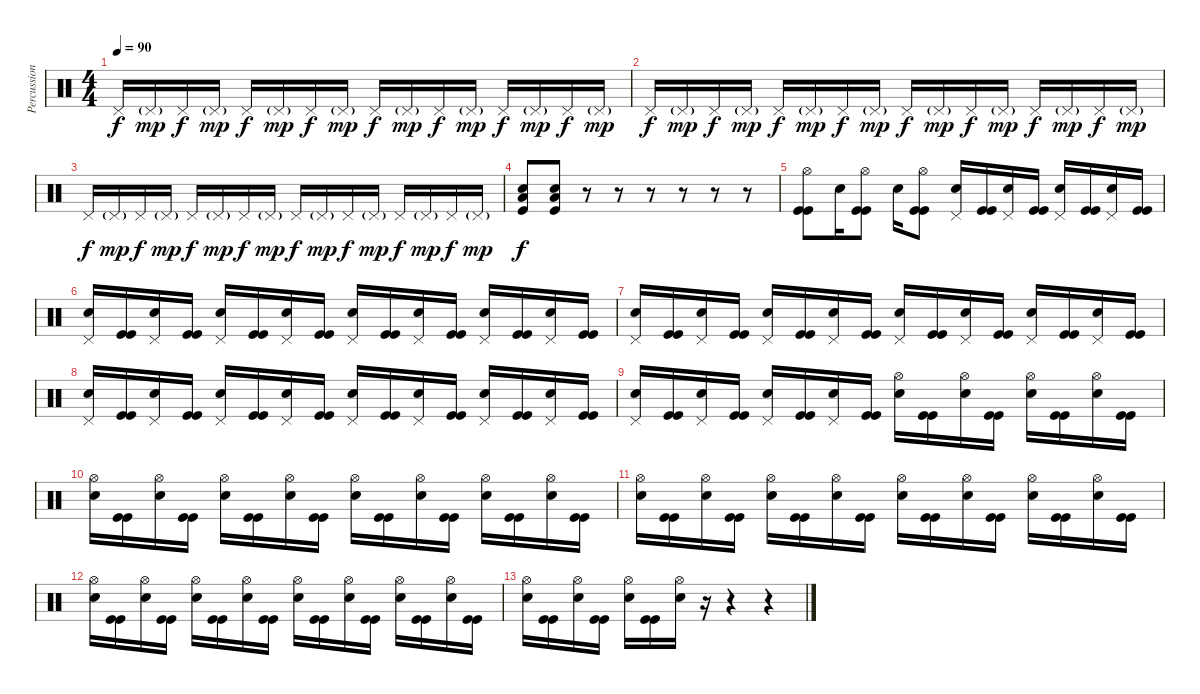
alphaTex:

\track ("Percussion" "Percussion") {instrument percussion}
\staff {score}
\articulation defaults
\ts (4 4)
\tempo 90
\clef neutral
\ks c "Pedal Hi-Hat (hit)".16{dy f} "Pedal Hi-Hat (hit)"{g}.16{dy mp} "Pedal Hi-Hat (hit)".16{dy f} "Pedal Hi-Hat (hit)"{g}.16{dy mp} "Pedal Hi-Hat (hit)".16{dy f} "Pedal Hi-Hat (hit)"{g}.16{dy mp} "Pedal Hi-Hat (hit)".16{dy f} "Pedal Hi-Hat (hit)"{g}.16{dy mp} "Pedal Hi-Hat (hit)".16{dy f} "Pedal Hi-Hat (hit)"{g}.16{dy mp} "Pedal Hi-Hat (hit)".16{dy f} "Pedal Hi-Hat (hit)"{g}.16{dy mp} "Pedal Hi-Hat (hit)".16{dy f} "Pedal Hi-Hat (hit)"{g}.16{dy mp} "Pedal Hi-Hat (hit)".16{dy f} "Pedal Hi-Hat (hit)"{g}.16{dy mp}
|
"Pedal Hi-Hat (hit)".16{dy f} "Pedal Hi-Hat (hit)"{g}.16{dy mp} "Pedal Hi-Hat (hit)".16{dy f} "Pedal Hi-Hat (hit)"{g}.16{dy mp} "Pedal Hi-Hat (hit)".16{dy f} "Pedal Hi-Hat (hit)"{g}.16{dy mp} "Pedal Hi-Hat (hit)".16{dy f} "Pedal Hi-Hat (hit)"{g}.16{dy mp} "Pedal Hi-Hat (hit)".16{dy f} "Pedal Hi-Hat (hit)"{g}.16{dy mp} "Pedal Hi-Hat (hit)".16{dy f} "Pedal Hi-Hat (hit)"{g}.16{dy mp} "Pedal Hi-Hat (hit)".16{dy f} "Pedal Hi-Hat (hit)"{g}.16{dy mp} "Pedal Hi-Hat (hit)".16{dy f} "Pedal Hi-Hat (hit)"{g}.16{dy mp} |
"Pedal Hi-Hat (hit)".16{dy f} "Pedal Hi-Hat (hit)"{g}.16{dy mp} "Pedal Hi-Hat (hit)".16{dy f} "Pedal Hi-Hat (hit)"{g}.16{dy mp} "Pedal Hi-Hat (hit)".16{dy f} "Pedal Hi-Hat (hit)"{g}.16{dy mp} "Pedal Hi-Hat (hit)".16{dy f} "Pedal Hi-Hat (hit)"{g}.16{dy mp} "Pedal Hi-Hat (hit)".16{dy f} "Pedal Hi-Hat (hit)"{g}.16{dy mp} "Pedal Hi-Hat (hit)".16{dy f} "Pedal Hi-Hat (hit)"{g}.16{dy mp} "Pedal Hi-Hat (hit)".16{dy f} "Pedal Hi-Hat (hit)"{g}.16{dy mp} "Pedal Hi-Hat (hit)".16{dy f} "Pedal Hi-Hat (hit)"{g}.16{dy mp} |
("Electric Snare (hit)" "Low Tom (hit)" "Kick (hit)").8{dy f} ("Electric Snare (hit)" "Low Tom (hit)" "Kick (hit)").8 r.8 r.8 r.8 r.8 r.8 r.8 |
("Hi-Hat (open)" "Kick (hit)" "Kick (hit)").8 "Electric Snare (hit)".16 ("Hi-Hat (open)" "Kick (hit)" "Kick (hit)").8 "Electric Snare (hit)".16 ("Hi-Hat (open)" "Kick (hit)" "Kick (hit)").8 ("Pedal Hi-Hat (hit)" "Electric Snare (hit)").16 ("Kick (hit)" "Kick (hit)").16 ("Pedal Hi-Hat (hit)" "Electric Snare (hit)").16 ("Kick (hit)" "Kick (hit)").16 ("Pedal Hi-Hat (hit)" "Electric Snare (hit)").16 ("Kick (hit)" "Kick (hit)").16 ("Pedal Hi-Hat (hit)" "Electric Snare (hit)").16 ("Kick (hit)" "Kick (hit)").16 |
("Pedal Hi-Hat (hit)" "Electric Snare (hit)").16 ("Kick (hit)" "Kick (hit)").16 ("Pedal Hi-Hat (hit)" "Electric Snare (hit)").16 ("Kick (hit)" "Kick (hit)").16 ("Pedal Hi-Hat (hit)" "Electric Snare (hit)").16 ("Kick (hit)" "Kick (hit)").16 ("Pedal Hi-Hat (hit)" "Electric Snare (hit)").16 ("Kick (hit)" "Kick (hit)").16 ("Pedal Hi-Hat (hit)" "Electric Snare (hit)").16 ("Kick (hit)" "Kick (hit)").16 ("Pedal Hi-Hat (hit)" "Electric Snare (hit)").16 ("Kick (hit)" "Kick (hit)").16 ("Pedal Hi-Hat (hit)" "Electric Snare (hit)").16 ("Kick (hit)" "Kick (hit)").16 ("Pedal Hi-Hat (hit)" "Electric Snare (hit)").16 ("Kick (hit)" "Kick (hit)").16 |
("Pedal Hi-Hat (hit)" "Electric Snare (hit)").16 ("Kick (hit)" "Kick (hit)").16 ("Pedal Hi-Hat (hit)" "Electric Snare (hit)").16 ("Kick (hit)" "Kick (hit)").16 ("Pedal Hi-Hat (hit)" "Electric Snare (hit)").16 ("Kick (hit)" "Kick (hit)").16 ("Pedal Hi-Hat (hit)" "Electric Snare (hit)").16 ("Kick (hit)" "Kick (hit)").16 ("Pedal Hi-Hat (hit)" "Electric Snare (hit)").16 ("Kick (hit)" "Kick (hit)").16 ("Pedal Hi-Hat (hit)" "Electric Snare (hit)").16 ("Kick (hit)" "Kick (hit)").16 ("Pedal Hi-Hat (hit)" "Electric Snare (hit)").16 ("Kick (hit)" "Kick (hit)").16 ("Pedal Hi-Hat (hit)" "Electric Snare (hit)").16 ("Kick (hit)" "Kick (hit)").16 |
("Pedal Hi-Hat (hit)" "Electric Snare (hit)").16 ("Kick (hit)" "Kick (hit)").16 ("Pedal Hi-Hat (hit)" "Electric Snare (hit)").16 ("Kick (hit)" "Kick (hit)").16 ("Pedal Hi-Hat (hit)" "Electric Snare (hit)").16 ("Kick (hit)" "Kick (hit)").16 ("Pedal Hi-Hat (hit)" "Electric Snare (hit)").16 ("Kick (hit)" "Kick (hit)").16 ("Pedal Hi-Hat (hit)" "Electric Snare (hit)").16 ("Kick (hit)" "Kick (hit)").16 ("Pedal Hi-Hat (hit)" "Electric Snare (hit)").16 ("Kick (hit)" "Kick (hit)").16 ("Pedal Hi-Hat (hit)" "Electric Snare (hit)").16 ("Kick (hit)" "Kick (hit)").16 ("Pedal Hi-Hat (hit)" "Electric Snare (hit)").16 ("Kick (hit)" "Kick (hit)").16 |
("Pedal Hi-Hat (hit)" "Electric Snare (hit)").16 ("Kick (hit)" "Kick (hit)").16 ("Pedal Hi-Hat (hit)" "Electric Snare (hit)").16 ("Kick (hit)" "Kick (hit)").16 ("Pedal Hi-Hat (hit)" "Electric Snare (hit)").16 ("Kick (hit)" "Kick (hit)").16 ("Pedal Hi-Hat (hit)" "Electric Snare (hit)").16 ("Kick (hit)" "Kick (hit)").16 ("Hi-Hat (open)" "Electric Snare (hit)").16 ("Kick (hit)" "Kick (hit)").16 ("Hi-Hat (open)" "Electric Snare (hit)").16 ("Kick (hit)" "Kick (hit)").16 ("Hi-Hat (open)" "Electric Snare (hit)").16 ("Kick (hit)" "Kick (hit)").16 ("Hi-Hat (open)" "Electric Snare (hit)").16 ("Kick (hit)" "Kick (hit)").16 |
("Hi-Hat (open)" "Electric Snare (hit)").16 ("Kick (hit)" "Kick (hit)").16 ("Hi-Hat (open)" "Electric Snare (hit)").16 ("Kick (hit)" "Kick (hit)").16 ("Hi-Hat (open)" "Electric Snare (hit)").16 ("Kick (hit)" "Kick (hit)").16 ("Hi-Hat (open)" "Electric Snare (hit)").16 ("Kick (hit)" "Kick (hit)").16 ("Hi-Hat (open)" "Electric Snare (hit)").16 ("Kick (hit)" "Kick (hit)").16 ("Hi-Hat (open)" "Electric Snare (hit)").16 ("Kick (hit)" "Kick (hit)").16 ("Hi-Hat (open)" "Electric Snare (hit)").16 ("Kick (hit)" "Kick (hit)").16 ("Hi-Hat (open)" "Electric Snare (hit)").16 ("Kick (hit)" "Kick (hit)").16 |
("Hi-Hat (open)" "Electric Snare (hit)").16 ("Kick (hit)" "Kick (hit)").16 ("Hi-Hat (open)" "Electric Snare (hit)").16 ("Kick (hit)" "Kick (hit)").16 ("Hi-Hat (open)" "Electric Snare (hit)").16 ("Kick (hit)" "Kick (hit)").16 ("Hi-Hat (open)" "Electric Snare (hit)").16 ("Kick (hit)" "Kick (hit)").16 ("Hi-Hat (open)" "Electric Snare (hit)").16 ("Kick (hit)" "Kick (hit)").16 ("Hi-Hat (open)" "Electric Snare (hit)").16 ("Kick (hit)" "Kick (hit)").16 ("Hi-Hat (open)" "Electric Snare (hit)").16 ("Kick (hit)" "Kick (hit)").16 ("Hi-Hat (open)" "Electric Snare (hit)").16 ("Kick (hit)" "Kick (hit)").16 |
("Hi-Hat (open)" "Electric Snare (hit)").16 ("Kick (hit)" "Kick (hit)").16 ("Hi-Hat (open)" "Electric Snare (hit)").16 ("Kick (hit)" "Kick (hit)").16 ("Hi-Hat (open)" "Electric Snare (hit)").16 ("Kick (hit)" "Kick (hit)").16 ("Hi-Hat (open)" "Electric Snare (hit)").16 ("Kick (hit)" "Kick (hit)").16 ("Hi-Hat (open)" "Electric Snare (hit)").16 ("Kick (hit)" "Kick (hit)").16 ("Hi-Hat (open)" "Electric Snare (hit)").16 ("Kick (hit)" "Kick (hit)").16 ("Hi-Hat (open)" "Electric Snare (hit)").16 ("Kick (hit)" "Kick (hit)").16 ("Hi-Hat (open)" "Electric Snare (hit)").16 ("Kick (hit)" "Kick (hit)").16 |
("Hi-Hat (open)" "Electric Snare (hit)").16 ("Kick (hit)" "Kick (hit)").16 ("Hi-Hat (open)" "Electric Snare (hit)").16 ("Kick (hit)" "Kick (hit)").16 ("Hi-Hat (open)" "Electric Snare (hit)").16 ("Kick (hit)" "Kick (hit)").16 ("Hi-Hat (open)" "Electric Snare (hit)").16 r.16 r.4 r.4
